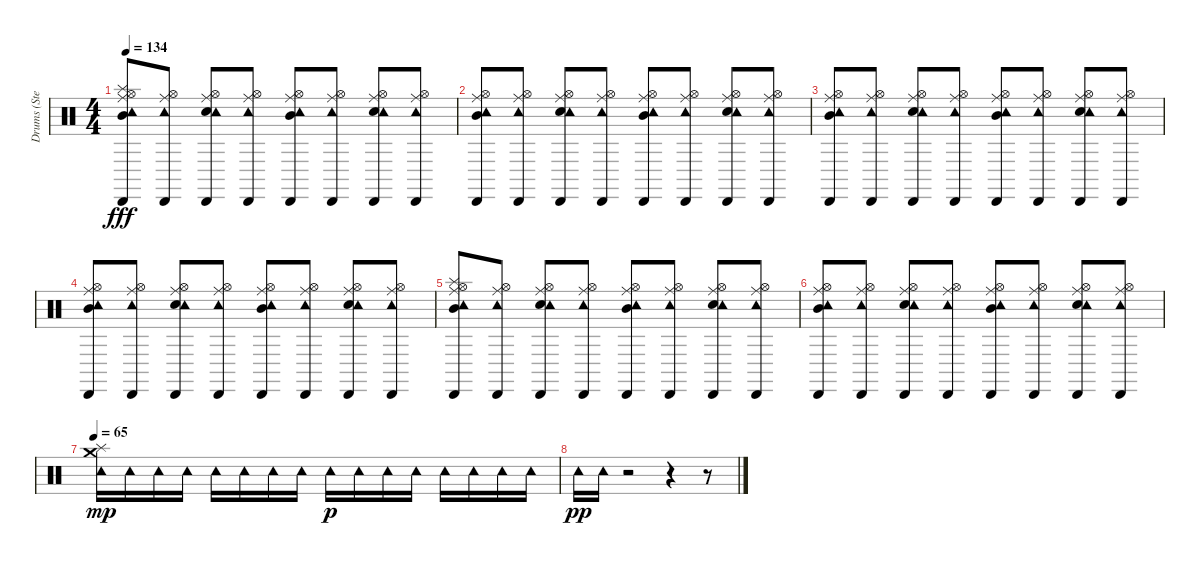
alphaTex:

\track ("Drums (Steven)" "Drums (Ste") {instrument percussion}
\staff {score}
\articulation defaults
\ts (4 4)
\tempo 134
\clef neutral
\ks c
("Hi-Hat (open)" "Mid Tom (hit)" "Splash (hit)" "Ride (middle)" "Tambourine (hit)" "Cabasa (hit)").8{dy fff} ("Hi-Hat (open)" "Ride (middle)" "Tambourine (hit)" "Cabasa (hit)").8 ("Electric Snare (hit)" "Hi-Hat (open)" "Ride (middle)" "Tambourine (hit)" "Cabasa (hit)").8 ("Hi-Hat (open)" "Ride (middle)" "Tambourine (hit)" "Cabasa (hit)").8 ("Hi-Hat (open)" "Mid Tom (hit)" "Ride (middle)" "Tambourine (hit)" "Cabasa (hit)").8 ("Hi-Hat (open)" "Ride (middle)" "Tambourine (hit)" "Cabasa (hit)").8 ("Electric Snare (hit)" "Hi-Hat (open)" "Ride (middle)" "Tambourine (hit)" "Cabasa (hit)").8 ("Hi-Hat (open)" "Ride (middle)" "Tambourine (hit)" "Cabasa (hit)").8 |
("Hi-Hat (open)" "Mid Tom (hit)" "Ride (middle)" "Tambourine (hit)" "Cabasa (hit)").8 ("Hi-Hat (open)" "Ride (middle)" "Tambourine (hit)" "Cabasa (hit)").8 ("Electric Snare (hit)" "Hi-Hat (open)" "Ride (middle)" "Tambourine (hit)" "Cabasa (hit)").8 ("Hi-Hat (open)" "Ride (middle)" "Tambourine (hit)" "Cabasa (hit)").8 ("Hi-Hat (open)" "Mid Tom (hit)" "Ride (middle)" "Tambourine (hit)" "Cabasa (hit)").8 ("Hi-Hat (open)" "Ride (middle)" "Tambourine (hit)" "Cabasa (hit)").8 ("Electric Snare (hit)" "Hi-Hat (open)" "Ride (middle)" "Tambourine (hit)" "Cabasa (hit)").8 ("Hi-Hat (open)" "Ride (middle)" "Tambourine (hit)" "Cabasa (hit)").8 |
("Hi-Hat (open)" "Mid Tom (hit)" "Ride (middle)" "Tambourine (hit)" "Cabasa (hit)").8 ("Hi-Hat (open)" "Ride (middle)" "Tambourine (hit)" "Cabasa (hit)").8 ("Electric Snare (hit)" "Hi-Hat (open)" "Ride (middle)" "Tambourine (hit)" "Cabasa (hit)").8 ("Hi-Hat (open)" "Ride (middle)" "Tambourine (hit)" "Cabasa (hit)").8 ("Hi-Hat (open)" "Mid Tom (hit)" "Ride (middle)" "Tambourine (hit)" "Cabasa (hit)").8 ("Hi-Hat (open)" "Ride (middle)" "Tambourine (hit)" "Cabasa (hit)").8 ("Electric Snare (hit)" "Hi-Hat (open)" "Ride (middle)" "Tambourine (hit)" "Cabasa (hit)").8 ("Hi-Hat (open)" "Ride (middle)" "Tambourine (hit)" "Cabasa (hit)").8 |
("Hi-Hat (open)" "Mid Tom (hit)" "Ride (middle)" "Tambourine (hit)" "Cabasa (hit)").8 ("Hi-Hat (open)" "Ride (middle)" "Tambourine (hit)" "Cabasa (hit)").8 ("Electric Snare (hit)" "Hi-Hat (open)" "Ride (middle)" "Tambourine (hit)" "Cabasa (hit)").8 ("Hi-Hat (open)" "Ride (middle)" "Tambourine (hit)" "Cabasa (hit)").8 ("Hi-Hat (open)" "Mid Tom (hit)" "Ride (middle)" "Tambourine (hit)" "Cabasa (hit)").8 ("Hi-Hat (open)" "Ride (middle)" "Tambourine (hit)" "Cabasa (hit)").8 ("Electric Snare (hit)" "Hi-Hat (open)" "Ride (middle)" "Tambourine (hit)" "Cabasa (hit)").8 ("Hi-Hat (open)" "Ride (middle)" "Tambourine (hit)" "Cabasa (hit)").8 |
("Hi-Hat (open)" "Mid Tom (hit)" "Splash (hit)" "Ride (middle)" "Tambourine (hit)" "Cabasa (hit)").8 ("Hi-Hat (open)" "Ride (middle)" "Tambourine (hit)" "Cabasa (hit)").8 ("Electric Snare (hit)" "Hi-Hat (open)" "Ride (middle)" "Tambourine (hit)" "Cabasa (hit)").8 ("Hi-Hat (open)" "Ride (middle)" "Tambourine (hit)" "Cabasa (hit)").8 ("Hi-Hat (open)" "Mid Tom (hit)" "Ride (middle)" "Tambourine (hit)" "Cabasa (hit)").8 ("Hi-Hat (open)" "Ride (middle)" "Tambourine (hit)" "Cabasa (hit)").8 ("Electric Snare (hit)" "Hi-Hat (open)" "Ride (middle)" "Tambourine (hit)" "Cabasa (hit)").8 ("Hi-Hat (open)" "Ride (middle)" "Tambourine (hit)" "Cabasa (hit)").8 |
("Hi-Hat (open)" "Mid Tom (hit)" "Ride (middle)" "Tambourine (hit)" "Cabasa (hit)").8 ("Hi-Hat (open)" "Ride (middle)" "Tambourine (hit)" "Cabasa (hit)").8 ("Electric Snare (hit)" "Hi-Hat (open)" "Ride (middle)" "Tambourine (hit)" "Cabasa (hit)").8 ("Hi-Hat (open)" "Ride (middle)" "Tambourine (hit)" "Cabasa (hit)").8 ("Hi-Hat (open)" "Mid Tom (hit)" "Ride (middle)" "Tambourine (hit)" "Cabasa (hit)").8 ("Hi-Hat (open)" "Ride (middle)" "Tambourine (hit)" "Cabasa (hit)").8 ("Electric Snare (hit)" "Hi-Hat (open)" "Ride (middle)" "Tambourine (hit)" "Cabasa (hit)").8 ("Hi-Hat (open)" "Ride (middle)" "Tambourine (hit)" "Cabasa (hit)").8 |
\tempo 65
("Splash (hit)" "Crash medium (hit)" "Tambourine (hit)").16{dy mp} "Tambourine (hit)".16 "Tambourine (hit)".16 "Tambourine (hit)".16 "Tambourine (hit)".16 "Tambourine (hit)".16 "Tambourine (hit)".16 "Tambourine (hit)".16 "Tambourine (hit)".16{dy p} "Tambourine (hit)".16 "Tambourine (hit)".16 "Tambourine (hit)".16 "Tambourine (hit)".16 "Tambourine (hit)".16 "Tambourine (hit)".16 "Tambourine (hit)".16 |
"Tambourine (hit)".16{dy pp} "Tambourine (hit)".16 r.2 r.4 r.8
